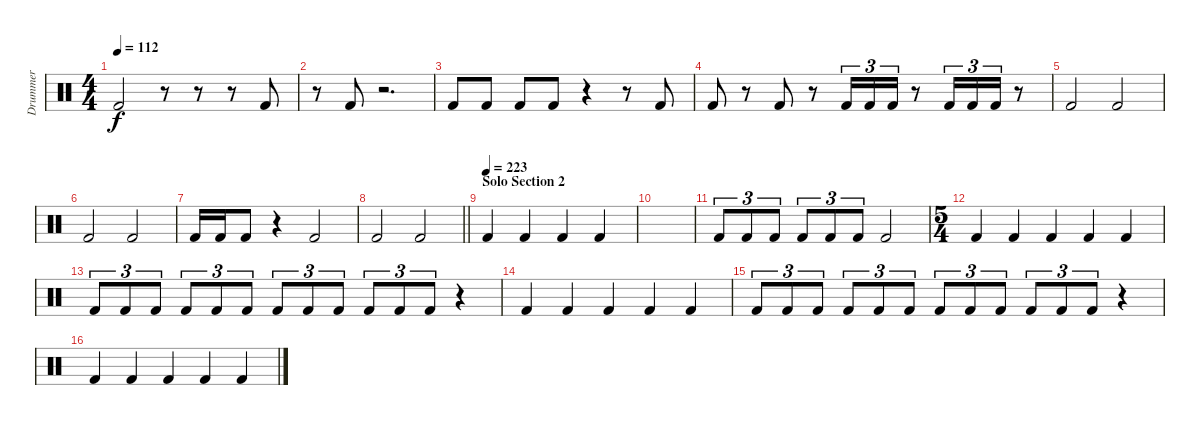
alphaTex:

\track ("Drummer" "Drummer") {instrument percussion}
\staff {score}
\articulation defaults
\ts (4 4)
\tempo 112
\clef neutral
\ks c "Kick (hit) 2".2{dy f}
r.8 r.8 r.8 "Kick (hit) 2".8 |
r.8 "Kick (hit) 2".8 r.2{d} |
"Kick (hit) 2".8 "Kick (hit) 2".8 "Kick (hit) 2".8 "Kick (hit) 2".8 r.4 r.8 "Kick (hit) 2".8 |
"Kick (hit) 2".8 r.8 "Kick (hit) 2".8 r.8 "Kick (hit) 2".16{tu (3 2)} "Kick (hit) 2".16{tu (3 2)} "Kick (hit) 2".16{tu (3 2)} r.8 "Kick (hit) 2".16{tu (3 2)} "Kick (hit) 2".16{tu (3 2)} "Kick (hit) 2".16{tu (3 2)} r.8 |
"Kick (hit) 2".2 "Kick (hit) 2".2 |
"Kick (hit) 2".2 "Kick (hit) 2".2 |
"Kick (hit) 2".16 "Kick (hit) 2".16 "Kick (hit) 2".8 r.4 "Kick (hit) 2".2 |
\barLineRight lightlight "Kick (hit) 2".2 "Kick (hit) 2".2
|
\section ("" "Solo Section 2")
\tempo (223)
"Kick (hit) 2".4 "Kick (hit) 2".4 "Kick (hit) 2".4 "Kick (hit) 2".4 |
|
"Kick (hit) 2".8{tu (3 2)} "Kick (hit) 2".8{tu (3 2)} "Kick (hit) 2".8{tu (3 2)} "Kick (hit) 2".8{tu (3 2)} "Kick (hit) 2".8{tu (3 2)} "Kick (hit) 2".8{tu (3 2)} "Kick (hit) 2".2 |
\ts (5 4)
"Kick (hit) 2".4 "Kick (hit) 2".4 "Kick (hit) 2".4 "Kick (hit) 2".4 "Kick (hit) 2".4 |
"Kick (hit) 2".8{tu (3 2)} "Kick (hit) 2".8{tu (3 2)} "Kick (hit) 2".8{tu (3 2)} "Kick (hit) 2".8{tu (3 2)} "Kick (hit) 2".8{tu (3 2)} "Kick (hit) 2".8{tu (3 2)} "Kick (hit) 2".8{tu (3 2)} "Kick (hit) 2".8{tu (3 2)} "Kick (hit) 2".8{tu (3 2)} "Kick (hit) 2".8{tu (3 2)} "Kick (hit) 2".8{tu (3 2)} "Kick (hit) 2".8{tu (3 2)} r.4 |
"Kick (hit) 2".4 "Kick (hit) 2".4 "Kick (hit) 2".4 "Kick (hit) 2".4 "Kick (hit) 2".4 |
"Kick (hit) 2".8{tu (3 2)} "Kick (hit) 2".8{tu (3 2)} "Kick (hit) 2".8{tu (3 2)} "Kick (hit) 2".8{tu (3 2)} "Kick (hit) 2".8{tu (3 2)} "Kick (hit) 2".8{tu (3 2)} "Kick (hit) 2".8{tu (3 2)} "Kick (hit) 2".8{tu (3 2)} "Kick (hit) 2".8{tu (3 2)} "Kick (hit) 2".8{tu (3 2)} "Kick (hit) 2".8{tu (3 2)} "Kick (hit) 2".8{tu (3 2)} r.4 |
"Kick (hit) 2".4 "Kick (hit) 2".4 "Kick (hit) 2".4 "Kick (hit) 2".4 "Kick (hit) 2".4
